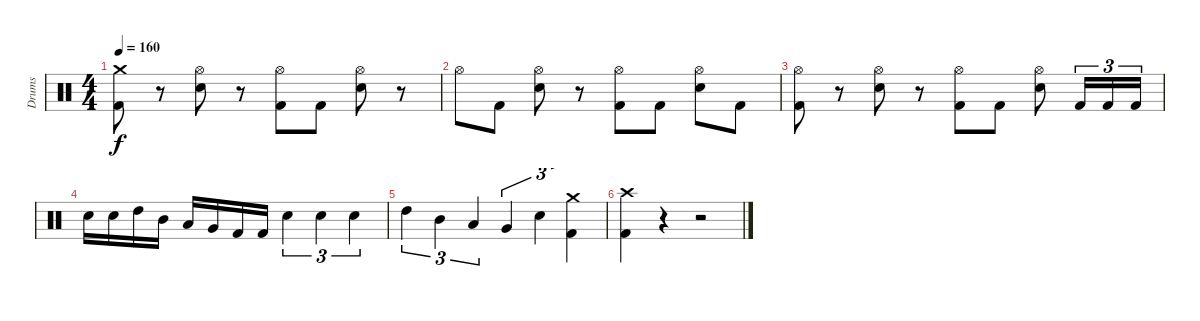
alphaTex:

\track ("Drums" "Drums") {instrument percussion}
\staff {score}
\articulation defaults
\ts (4 4)
\tempo 160
\clef neutral
\ks c
("Crash medium (hit)" "Kick (hit) 2").8{dy f} r.8 ("Hi-Hat (open)" "Snare (hit) 2").8 r.8 ("Hi-Hat (open)" "Kick (hit) 2").8 "Kick (hit) 2".8 ("Hi-Hat (open)" "Snare (hit) 2").8 r.8 |
"Hi-Hat (open)".8 "Kick (hit) 2".8 ("Hi-Hat (open)" "Snare (hit) 2").8 r.8 ("Hi-Hat (open)" "Kick (hit) 2").8 "Kick (hit) 2".8 ("Hi-Hat (open)" "Snare (hit) 2").8 "Kick (hit) 2".8 |
("Hi-Hat (open)" "Kick (hit) 2").8 r.8 ("Hi-Hat (open)" "Snare (hit) 2").8 r.8 ("Hi-Hat (open)" "Kick (hit) 2").8 "Kick (hit) 2".8 ("Hi-Hat (open)" "Snare (hit) 2").8 "Kick (hit) 2".16{tu (3 2)} "Kick (hit) 2".16{tu (3 2)} "Kick (hit) 2".16{tu (3 2)} |
"Snare (hit) 2".16 "Snare (hit) 2".16 "High Tom (hit)".16 "Mid Tom (hit)".16 "Low Tom (hit)".16 "Very Low Tom (hit)".16 "Kick (hit) 2".16 "Kick (hit) 2".16 "Snare (hit) 2".4{tu (3 2)} "Snare (hit) 2".4{tu (3 2)} "Snare (hit) 2".4{tu (3 2)} |
"High Tom (hit)".4{tu (3 2)} "Mid Tom (hit)".4{tu (3 2)} "Low Tom (hit)".4{tu (3 2)} "Very Low Tom (hit)".4{tu (3 2)} "Snare (hit) 2".4{tu (3 2)} ("Crash medium (hit)" "Kick (hit) 2").4{tu (3 2)} |
("Crash high (hit)" "Kick (hit) 2").4 r.4 r.2
